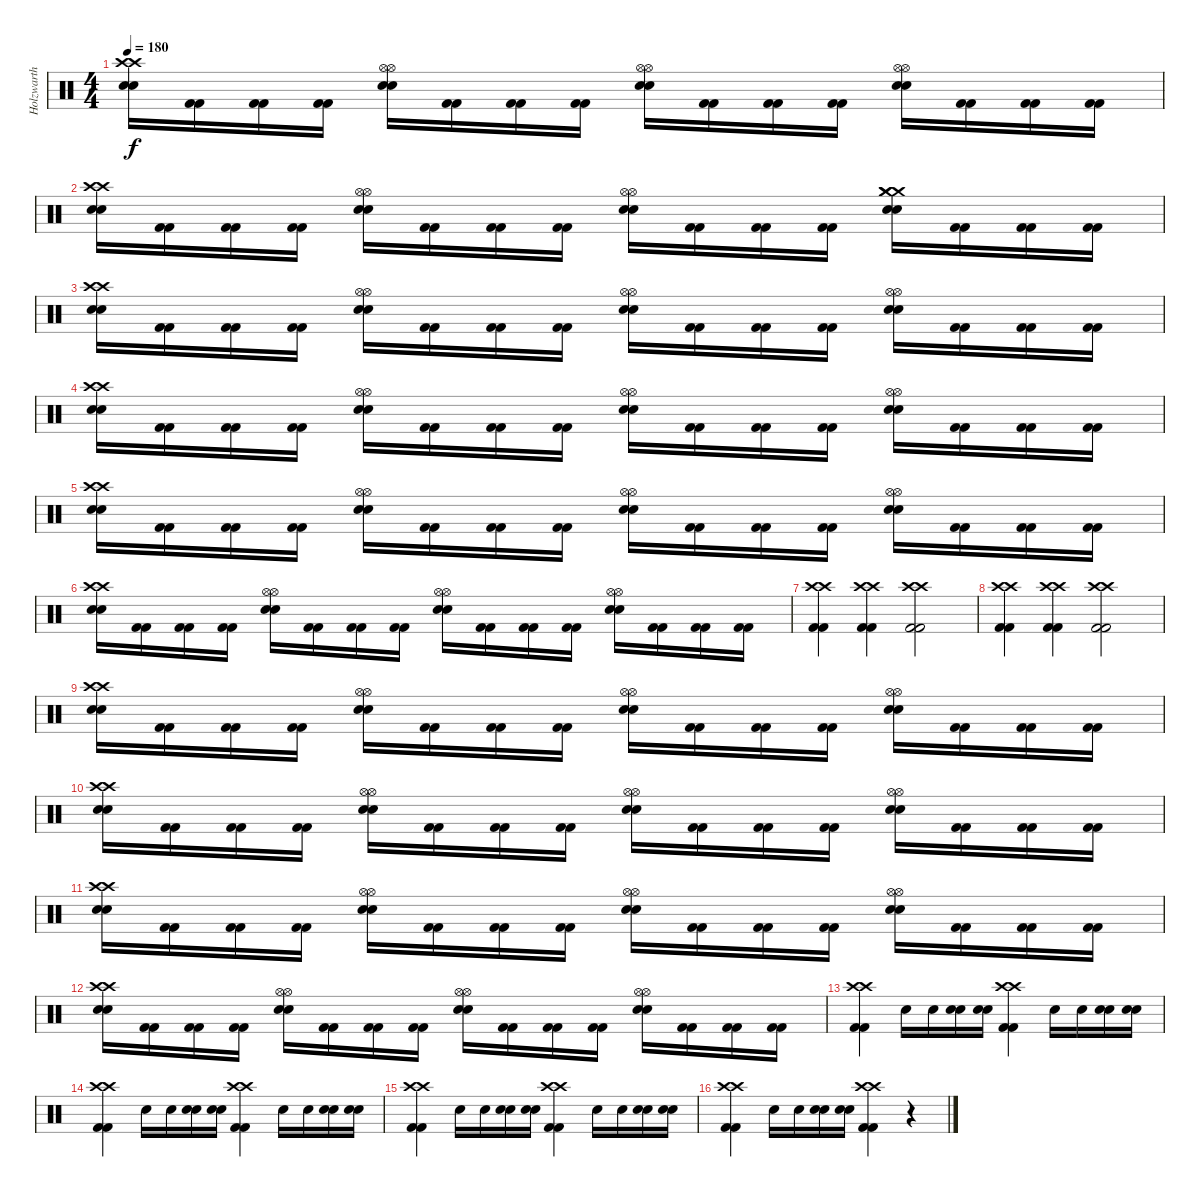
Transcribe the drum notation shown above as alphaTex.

\track ("Holzwarth" "Holzwarth") {instrument percussion}
\staff {score}
\articulation defaults
\ts (4 4)
\tempo 180
\clef neutral
\ks c
("Snare (hit) 2" "Snare (hit) 2" "Crash high (hit)" "Crash high (hit)").16{dy f} ("Kick (hit) 2" "Kick (hit) 2").16 ("Kick (hit) 2" "Kick (hit) 2").16 ("Kick (hit) 2" "Kick (hit) 2").16 ("Snare (hit) 2" "Snare (hit) 2" "Hi-Hat (open)" "Hi-Hat (open)").16 ("Kick (hit) 2" "Kick (hit) 2").16 ("Kick (hit) 2" "Kick (hit) 2").16 ("Kick (hit) 2" "Kick (hit) 2").16 ("Snare (hit) 2" "Snare (hit) 2" "Hi-Hat (open)" "Hi-Hat (open)").16 ("Kick (hit) 2" "Kick (hit) 2").16 ("Kick (hit) 2" "Kick (hit) 2").16 ("Kick (hit) 2" "Kick (hit) 2").16 ("Snare (hit) 2" "Snare (hit) 2" "Hi-Hat (open)" "Hi-Hat (open)").16 ("Kick (hit) 2" "Kick (hit) 2").16 ("Kick (hit) 2" "Kick (hit) 2").16 ("Kick (hit) 2" "Kick (hit) 2").16 |
("Snare (hit) 2" "Snare (hit) 2" "Crash high (hit)" "Crash high (hit)").16 ("Kick (hit) 2" "Kick (hit) 2").16 ("Kick (hit) 2" "Kick (hit) 2").16 ("Kick (hit) 2" "Kick (hit) 2").16 ("Snare (hit) 2" "Snare (hit) 2" "Hi-Hat (open)" "Hi-Hat (open)").16 ("Kick (hit) 2" "Kick (hit) 2").16 ("Kick (hit) 2" "Kick (hit) 2").16 ("Kick (hit) 2" "Kick (hit) 2").16 ("Snare (hit) 2" "Snare (hit) 2" "Hi-Hat (open)" "Hi-Hat (open)").16 ("Kick (hit) 2" "Kick (hit) 2").16 ("Kick (hit) 2" "Kick (hit) 2").16 ("Kick (hit) 2" "Kick (hit) 2").16 ("Snare (hit) 2" "Snare (hit) 2" "Crash medium (hit)" "Crash medium (hit)" "Crash medium (hit)").16 ("Kick (hit) 2" "Kick (hit) 2").16 ("Kick (hit) 2" "Kick (hit) 2").16 ("Kick (hit) 2" "Kick (hit) 2").16 |
("Snare (hit) 2" "Snare (hit) 2" "Crash high (hit)" "Crash high (hit)").16 ("Kick (hit) 2" "Kick (hit) 2").16 ("Kick (hit) 2" "Kick (hit) 2").16 ("Kick (hit) 2" "Kick (hit) 2").16 ("Snare (hit) 2" "Snare (hit) 2" "Hi-Hat (open)" "Hi-Hat (open)").16 ("Kick (hit) 2" "Kick (hit) 2").16 ("Kick (hit) 2" "Kick (hit) 2").16 ("Kick (hit) 2" "Kick (hit) 2").16 ("Snare (hit) 2" "Snare (hit) 2" "Hi-Hat (open)" "Hi-Hat (open)").16 ("Kick (hit) 2" "Kick (hit) 2").16 ("Kick (hit) 2" "Kick (hit) 2").16 ("Kick (hit) 2" "Kick (hit) 2").16 ("Snare (hit) 2" "Snare (hit) 2" "Hi-Hat (open)" "Hi-Hat (open)").16 ("Kick (hit) 2" "Kick (hit) 2").16 ("Kick (hit) 2" "Kick (hit) 2").16 ("Kick (hit) 2" "Kick (hit) 2").16 |
("Snare (hit) 2" "Snare (hit) 2" "Crash high (hit)" "Crash high (hit)").16 ("Kick (hit) 2" "Kick (hit) 2").16 ("Kick (hit) 2" "Kick (hit) 2").16 ("Kick (hit) 2" "Kick (hit) 2").16 ("Snare (hit) 2" "Snare (hit) 2" "Hi-Hat (open)" "Hi-Hat (open)").16 ("Kick (hit) 2" "Kick (hit) 2").16 ("Kick (hit) 2" "Kick (hit) 2").16 ("Kick (hit) 2" "Kick (hit) 2").16 ("Snare (hit) 2" "Snare (hit) 2" "Hi-Hat (open)" "Hi-Hat (open)").16 ("Kick (hit) 2" "Kick (hit) 2").16 ("Kick (hit) 2" "Kick (hit) 2").16 ("Kick (hit) 2" "Kick (hit) 2").16 ("Snare (hit) 2" "Snare (hit) 2" "Hi-Hat (open)" "Hi-Hat (open)").16 ("Kick (hit) 2" "Kick (hit) 2").16 ("Kick (hit) 2" "Kick (hit) 2").16 ("Kick (hit) 2" "Kick (hit) 2").16 |
("Snare (hit) 2" "Snare (hit) 2" "Crash high (hit)" "Crash high (hit)").16 ("Kick (hit) 2" "Kick (hit) 2").16 ("Kick (hit) 2" "Kick (hit) 2").16 ("Kick (hit) 2" "Kick (hit) 2").16 ("Snare (hit) 2" "Snare (hit) 2" "Hi-Hat (open)" "Hi-Hat (open)").16 ("Kick (hit) 2" "Kick (hit) 2").16 ("Kick (hit) 2" "Kick (hit) 2").16 ("Kick (hit) 2" "Kick (hit) 2").16 ("Snare (hit) 2" "Snare (hit) 2" "Hi-Hat (open)" "Hi-Hat (open)").16 ("Kick (hit) 2" "Kick (hit) 2").16 ("Kick (hit) 2" "Kick (hit) 2").16 ("Kick (hit) 2" "Kick (hit) 2").16 ("Snare (hit) 2" "Snare (hit) 2" "Hi-Hat (open)" "Hi-Hat (open)").16 ("Kick (hit) 2" "Kick (hit) 2").16 ("Kick (hit) 2" "Kick (hit) 2").16 ("Kick (hit) 2" "Kick (hit) 2").16 |
("Snare (hit) 2" "Snare (hit) 2" "Crash high (hit)" "Crash high (hit)").16 ("Kick (hit) 2" "Kick (hit) 2").16 ("Kick (hit) 2" "Kick (hit) 2").16 ("Kick (hit) 2" "Kick (hit) 2").16 ("Snare (hit) 2" "Snare (hit) 2" "Hi-Hat (open)" "Hi-Hat (open)").16 ("Kick (hit) 2" "Kick (hit) 2").16 ("Kick (hit) 2" "Kick (hit) 2").16 ("Kick (hit) 2" "Kick (hit) 2").16 ("Snare (hit) 2" "Snare (hit) 2" "Hi-Hat (open)" "Hi-Hat (open)").16 ("Kick (hit) 2" "Kick (hit) 2").16 ("Kick (hit) 2" "Kick (hit) 2").16 ("Kick (hit) 2" "Kick (hit) 2").16 ("Snare (hit) 2" "Snare (hit) 2" "Hi-Hat (open)" "Hi-Hat (open)").16 ("Kick (hit) 2" "Kick (hit) 2").16 ("Kick (hit) 2" "Kick (hit) 2").16 ("Kick (hit) 2" "Kick (hit) 2").16 |
("Kick (hit) 2" "Kick (hit) 2" "Crash high (hit)" "Crash high (hit)").4 ("Kick (hit) 2" "Kick (hit) 2" "Crash high (hit)" "Crash high (hit)").4 ("Kick (hit) 2" "Kick (hit) 2" "Crash high (hit)" "Crash high (hit)").2 |
("Kick (hit) 2" "Kick (hit) 2" "Crash high (hit)" "Crash high (hit)").4 ("Kick (hit) 2" "Kick (hit) 2" "Crash high (hit)" "Crash high (hit)").4 ("Kick (hit) 2" "Kick (hit) 2" "Crash high (hit)" "Crash high (hit)").2 |
("Snare (hit) 2" "Snare (hit) 2" "Crash high (hit)" "Crash high (hit)").16 ("Kick (hit) 2" "Kick (hit) 2").16 ("Kick (hit) 2" "Kick (hit) 2").16 ("Kick (hit) 2" "Kick (hit) 2").16 ("Snare (hit) 2" "Snare (hit) 2" "Hi-Hat (open)" "Hi-Hat (open)").16 ("Kick (hit) 2" "Kick (hit) 2").16 ("Kick (hit) 2" "Kick (hit) 2").16 ("Kick (hit) 2" "Kick (hit) 2").16 ("Snare (hit) 2" "Snare (hit) 2" "Hi-Hat (open)" "Hi-Hat (open)").16 ("Kick (hit) 2" "Kick (hit) 2").16 ("Kick (hit) 2" "Kick (hit) 2").16 ("Kick (hit) 2" "Kick (hit) 2").16 ("Snare (hit) 2" "Snare (hit) 2" "Hi-Hat (open)" "Hi-Hat (open)").16 ("Kick (hit) 2" "Kick (hit) 2").16 ("Kick (hit) 2" "Kick (hit) 2").16 ("Kick (hit) 2" "Kick (hit) 2").16 |
("Snare (hit) 2" "Snare (hit) 2" "Crash high (hit)" "Crash high (hit)").16 ("Kick (hit) 2" "Kick (hit) 2").16 ("Kick (hit) 2" "Kick (hit) 2").16 ("Kick (hit) 2" "Kick (hit) 2").16 ("Snare (hit) 2" "Snare (hit) 2" "Hi-Hat (open)" "Hi-Hat (open)").16 ("Kick (hit) 2" "Kick (hit) 2").16 ("Kick (hit) 2" "Kick (hit) 2").16 ("Kick (hit) 2" "Kick (hit) 2").16 ("Snare (hit) 2" "Snare (hit) 2" "Hi-Hat (open)" "Hi-Hat (open)").16 ("Kick (hit) 2" "Kick (hit) 2").16 ("Kick (hit) 2" "Kick (hit) 2").16 ("Kick (hit) 2" "Kick (hit) 2").16 ("Snare (hit) 2" "Snare (hit) 2" "Hi-Hat (open)" "Hi-Hat (open)").16 ("Kick (hit) 2" "Kick (hit) 2").16 ("Kick (hit) 2" "Kick (hit) 2").16 ("Kick (hit) 2" "Kick (hit) 2").16 |
("Snare (hit) 2" "Snare (hit) 2" "Crash high (hit)" "Crash high (hit)").16 ("Kick (hit) 2" "Kick (hit) 2").16 ("Kick (hit) 2" "Kick (hit) 2").16 ("Kick (hit) 2" "Kick (hit) 2").16 ("Snare (hit) 2" "Snare (hit) 2" "Hi-Hat (open)" "Hi-Hat (open)").16 ("Kick (hit) 2" "Kick (hit) 2").16 ("Kick (hit) 2" "Kick (hit) 2").16 ("Kick (hit) 2" "Kick (hit) 2").16 ("Snare (hit) 2" "Snare (hit) 2" "Hi-Hat (open)" "Hi-Hat (open)").16 ("Kick (hit) 2" "Kick (hit) 2").16 ("Kick (hit) 2" "Kick (hit) 2").16 ("Kick (hit) 2" "Kick (hit) 2").16 ("Snare (hit) 2" "Snare (hit) 2" "Hi-Hat (open)" "Hi-Hat (open)").16 ("Kick (hit) 2" "Kick (hit) 2").16 ("Kick (hit) 2" "Kick (hit) 2").16 ("Kick (hit) 2" "Kick (hit) 2").16 |
("Snare (hit) 2" "Snare (hit) 2" "Crash high (hit)" "Crash high (hit)").16 ("Kick (hit) 2" "Kick (hit) 2").16 ("Kick (hit) 2" "Kick (hit) 2").16 ("Kick (hit) 2" "Kick (hit) 2").16 ("Snare (hit) 2" "Snare (hit) 2" "Hi-Hat (open)" "Hi-Hat (open)").16 ("Kick (hit) 2" "Kick (hit) 2").16 ("Kick (hit) 2" "Kick (hit) 2").16 ("Kick (hit) 2" "Kick (hit) 2").16 ("Snare (hit) 2" "Snare (hit) 2" "Hi-Hat (open)" "Hi-Hat (open)").16 ("Kick (hit) 2" "Kick (hit) 2").16 ("Kick (hit) 2" "Kick (hit) 2").16 ("Kick (hit) 2" "Kick (hit) 2").16 ("Snare (hit) 2" "Snare (hit) 2" "Hi-Hat (open)" "Hi-Hat (open)").16 ("Kick (hit) 2" "Kick (hit) 2").16 ("Kick (hit) 2" "Kick (hit) 2").16 ("Kick (hit) 2" "Kick (hit) 2").16 |
("Kick (hit) 2" "Kick (hit) 2" "Crash high (hit)" "Crash high (hit)").4 "Snare (hit) 2".16 "Snare (hit) 2".16 ("Snare (hit) 2" "Snare (hit) 2").16 ("Snare (hit) 2" "Snare (hit) 2").16 ("Kick (hit) 2" "Kick (hit) 2" "Crash high (hit)" "Crash high (hit)").4 "Snare (hit) 2".16 "Snare (hit) 2".16 ("Snare (hit) 2" "Snare (hit) 2").16 ("Snare (hit) 2" "Snare (hit) 2").16 |
("Kick (hit) 2" "Kick (hit) 2" "Crash high (hit)" "Crash high (hit)").4 "Snare (hit) 2".16 "Snare (hit) 2".16 ("Snare (hit) 2" "Snare (hit) 2").16 ("Snare (hit) 2" "Snare (hit) 2").16 ("Kick (hit) 2" "Kick (hit) 2" "Crash high (hit)" "Crash high (hit)").4 "Snare (hit) 2".16 "Snare (hit) 2".16 ("Snare (hit) 2" "Snare (hit) 2").16 ("Snare (hit) 2" "Snare (hit) 2").16 |
("Kick (hit) 2" "Kick (hit) 2" "Crash high (hit)" "Crash high (hit)").4 "Snare (hit) 2".16 "Snare (hit) 2".16 ("Snare (hit) 2" "Snare (hit) 2").16 ("Snare (hit) 2" "Snare (hit) 2").16 ("Kick (hit) 2" "Kick (hit) 2" "Crash high (hit)" "Crash high (hit)").4 "Snare (hit) 2".16 "Snare (hit) 2".16 ("Snare (hit) 2" "Snare (hit) 2").16 ("Snare (hit) 2" "Snare (hit) 2").16 |
("Kick (hit) 2" "Kick (hit) 2" "Crash high (hit)" "Crash high (hit)").4 "Snare (hit) 2".16 "Snare (hit) 2".16 ("Snare (hit) 2" "Snare (hit) 2").16 ("Snare (hit) 2" "Snare (hit) 2").16 ("Kick (hit) 2" "Kick (hit) 2" "Crash high (hit)" "Crash high (hit)").4 r.4
